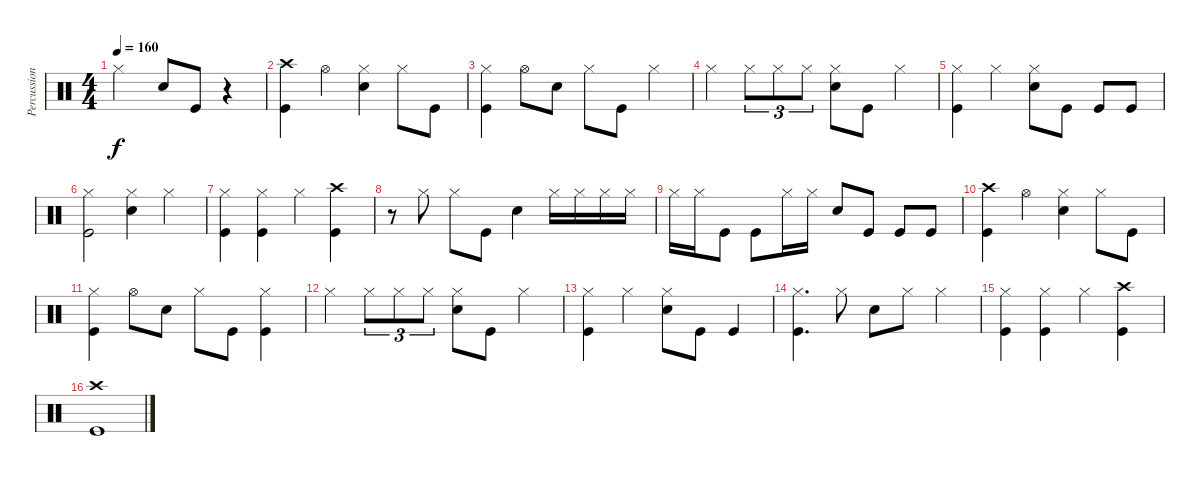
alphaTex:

\track ("Percussion" "Percussion") {instrument percussion}
\staff {score}
\articulation defaults
\ts (4 4)
\tempo 160
\clef neutral
\ks c "Hi-Hat (closed)".2{dy f} "Snare (hit) 2".8 "Kick (hit)".8
r.4 |
("Kick (hit)" "Crash high (hit)").4 "Hi-Hat (open)".4 ("Snare (hit) 2" "Hi-Hat (closed)").4 "Hi-Hat (closed)".8 "Kick (hit)".8 |
("Kick (hit)" "Hi-Hat (closed)").4 "Hi-Hat (open)".8 "Snare (hit) 2".8 "Hi-Hat (closed)".8 "Kick (hit)".8 "Hi-Hat (closed)".4 |
"Hi-Hat (closed)".4 "Hi-Hat (closed)".8{tu (3 2)} "Hi-Hat (closed)".8{tu (3 2)} "Hi-Hat (closed)".8{tu (3 2)} ("Snare (hit) 2" "Hi-Hat (closed)").8 "Kick (hit)".8 "Hi-Hat (closed)".4 |
("Kick (hit)" "Hi-Hat (closed)").4 "Hi-Hat (closed)".4 ("Snare (hit) 2" "Hi-Hat (closed)").8 "Kick (hit)".8 "Kick (hit)".8 "Kick (hit)".8 |
("Kick (hit)" "Hi-Hat (closed)").2 ("Snare (hit) 2" "Hi-Hat (closed)").4 "Hi-Hat (closed)".4 |
("Kick (hit)" "Hi-Hat (closed)").4 ("Kick (hit)" "Hi-Hat (closed)").4 "Hi-Hat (closed)".4 ("Kick (hit)" "Crash high (hit)").4 |
r.8 "Hi-Hat (closed)".8 "Hi-Hat (closed)".8 "Kick (hit)".8 "Snare (hit) 2".4 "Hi-Hat (closed)".16 "Hi-Hat (closed)".16 "Hi-Hat (closed)".16 "Hi-Hat (closed)".16 |
"Hi-Hat (closed)".16 "Hi-Hat (closed)".16 "Kick (hit)".8 "Kick (hit)".8 "Hi-Hat (closed)".16 "Hi-Hat (closed)".16 "Snare (hit) 2".8 "Kick (hit)".8 "Kick (hit)".8 "Kick (hit)".8 |
("Kick (hit)" "Crash high (hit)").4 "Hi-Hat (open)".4 ("Snare (hit) 2" "Hi-Hat (closed)").4 "Hi-Hat (closed)".8 "Kick (hit)".8 |
("Kick (hit)" "Hi-Hat (closed)").4 "Hi-Hat (open)".8 "Snare (hit) 2".8 "Hi-Hat (closed)".8 "Kick (hit)".8 ("Hi-Hat (closed)" "Kick (hit)").4 |
"Hi-Hat (closed)".4 "Hi-Hat (closed)".8{tu (3 2)} "Hi-Hat (closed)".8{tu (3 2)} "Hi-Hat (closed)".8{tu (3 2)} ("Snare (hit) 2" "Hi-Hat (closed)").8 "Kick (hit)".8 "Hi-Hat (closed)".4 |
("Kick (hit)" "Hi-Hat (closed)").4 "Hi-Hat (closed)".4 ("Snare (hit) 2" "Hi-Hat (closed)").8 "Kick (hit)".8 "Kick (hit)".4 |
("Kick (hit)" "Hi-Hat (closed)").4{d} "Hi-Hat (closed)".8 "Snare (hit) 2".8 "Hi-Hat (closed)".8 "Hi-Hat (closed)".4 |
("Kick (hit)" "Hi-Hat (closed)").4 ("Kick (hit)" "Hi-Hat (closed)").4 "Hi-Hat (closed)".4 ("Kick (hit)" "Crash high (hit)").4 |
("Kick (hit)" "Crash high (hit)").1
